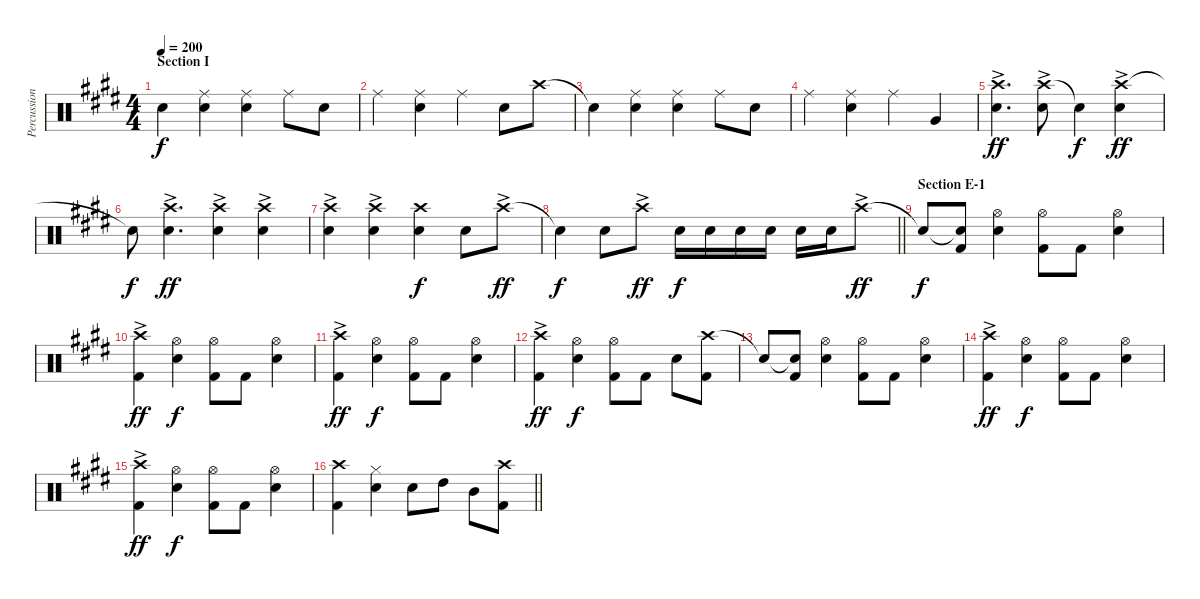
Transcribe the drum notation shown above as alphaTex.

\track ("Percussion - other" "Percussion") {instrument percussion}
\staff {score}
\articulation defaults
\ts (4 4)
\section ("" "Section I")
\tempo 200
\clef neutral
\ks e "Snare (hit)"{t}.4{dy f}
("Ride (middle)" "Snare (hit) 2").4 ("Ride (middle)" "Snare (hit) 2").4 "Ride (middle)".8 "Snare (hit) 2".8 |
"Ride (middle)".4 ("Ride (middle)" "Snare (hit) 2").4 "Ride (middle)".4 "Snare (hit) 2".8 "Crash high (hit)".8 |
"Snare (hit)"{t}.4 ("Ride (middle)" "Snare (hit) 2").4 ("Ride (middle)" "Snare (hit) 2").4 "Ride (middle)".8 "Snare (hit) 2".8 |
"Ride (middle)".4 ("Ride (middle)" "Snare (hit) 2").4 "Ride (middle)".4 "Very Low Tom (hit)".4 |
("Crash high (hit)"{ac} "Snare (hit) 2").4{d dy ff} ("Crash high (hit)"{ac} "Snare (hit) 2").8 "Snare (hit)"{t}.4{dy f} ("Crash high (hit)"{ac} "Snare (hit) 2").4{dy ff} |
"Snare (hit)"{t}.8{dy f} ("Crash high (hit)"{ac} "Snare (hit) 2").4{d dy ff} ("Crash high (hit)"{ac} "Snare (hit) 2").4 ("Crash high (hit)"{ac} "Snare (hit) 2").4 |
("Crash high (hit)"{ac} "Snare (hit) 2").4 ("Crash high (hit)"{ac} "Snare (hit) 2").4 ("Crash high (hit)" "Snare (hit) 2").4{dy f} "Snare (hit) 2".8 "Crash high (hit)"{ac}.8{dy ff} |
\barLineRight lightlight "Snare (hit)"{t}.4{dy f} "Snare (hit) 2".8 "Crash high (hit)"{ac}.8{dy ff} "Snare (hit) 2".16{dy f} "Snare (hit) 2".16 "Snare (hit) 2".16 "Snare (hit) 2".16 "Snare (hit) 2".16 "Snare (hit) 2".16 "Crash high (hit)"{ac}.8{dy ff}
|
\section ("" "Section E-1")
"Snare (hit)"{t}.8{dy f} ("Snare (hit)"{t} "Kick (hit) 2").8 ("Hi-Hat (open)" "Snare (hit) 2").4 ("Hi-Hat (open)" "Kick (hit) 2").8 "Kick (hit) 2".8 ("Hi-Hat (open)" "Snare (hit) 2").4 |
("Crash high (hit)"{ac} "Kick (hit) 2").4{dy ff} ("Hi-Hat (open)" "Snare (hit) 2").4{dy f} ("Hi-Hat (open)" "Kick (hit) 2").8 "Kick (hit) 2".8 ("Hi-Hat (open)" "Snare (hit) 2").4 |
("Crash high (hit)"{ac} "Kick (hit) 2").4{dy ff} ("Hi-Hat (open)" "Snare (hit) 2").4{dy f} ("Hi-Hat (open)" "Kick (hit) 2").8 "Kick (hit) 2".8 ("Hi-Hat (open)" "Snare (hit) 2").4 |
("Crash high (hit)"{ac} "Kick (hit) 2").4{dy ff} ("Hi-Hat (open)" "Snare (hit) 2").4{dy f} ("Hi-Hat (open)" "Kick (hit) 2").8 "Kick (hit) 2".8 "Snare (hit) 2".8 ("Crash high (hit)" "Kick (hit) 2").8 |
"Snare (hit)"{t}.8 ("Snare (hit)"{t} "Kick (hit) 2").8 ("Hi-Hat (open)" "Snare (hit) 2").4 ("Hi-Hat (open)" "Kick (hit) 2").8 "Kick (hit) 2".8 ("Hi-Hat (open)" "Snare (hit) 2").4 |
("Crash high (hit)"{ac} "Kick (hit) 2").4{dy ff} ("Hi-Hat (open)" "Snare (hit) 2").4{dy f} ("Hi-Hat (open)" "Kick (hit) 2").8 "Kick (hit) 2".8 ("Hi-Hat (open)" "Snare (hit) 2").4 |
("Crash high (hit)"{ac} "Kick (hit) 2").4{dy ff} ("Hi-Hat (open)" "Snare (hit) 2").4{dy f} ("Hi-Hat (open)" "Kick (hit) 2").8 "Kick (hit) 2".8 ("Hi-Hat (open)" "Snare (hit) 2").4 |
\barLineRight lightlight
("Crash high (hit)" "Kick (hit) 2").4 ("Hi-Hat (closed)" "Snare (hit) 2").4 "Snare (hit) 2".8 "High Tom (hit)".8 "Mid Tom (hit)".8 ("Crash high (hit)" "Kick (hit) 2").8
